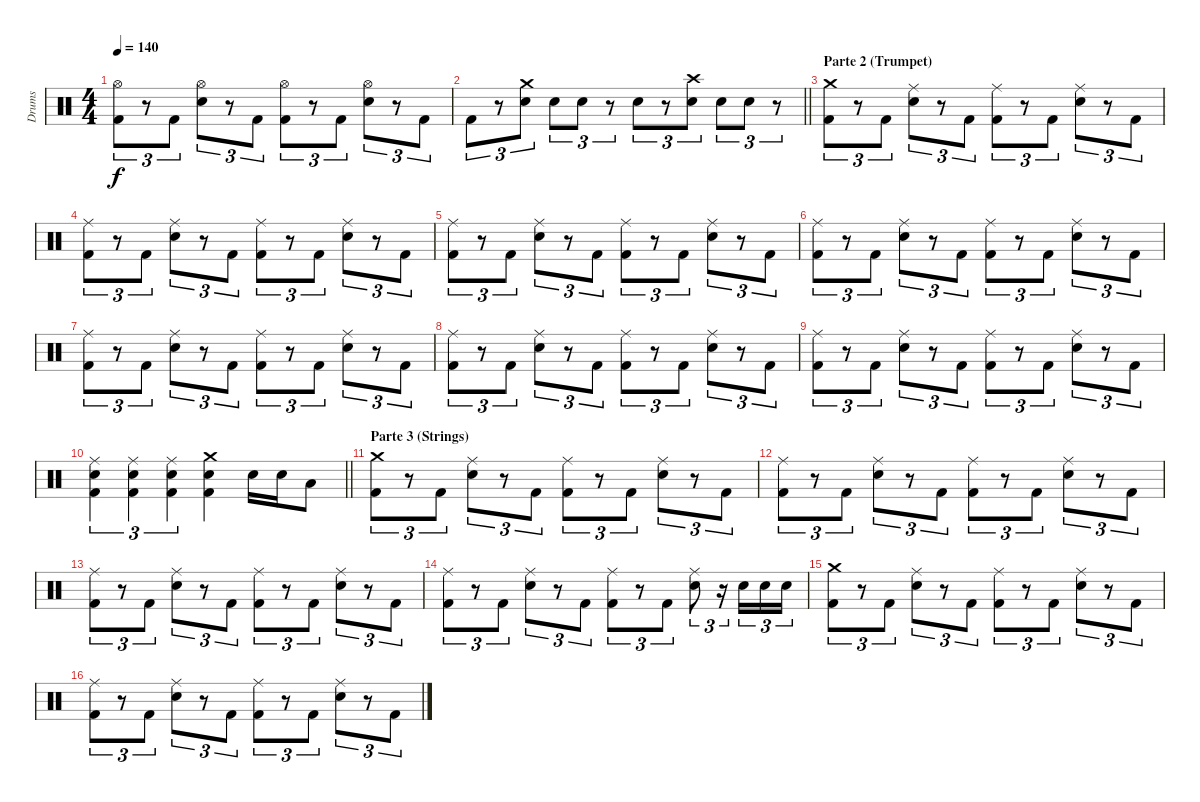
\track ("Drums" "Drums") {instrument percussion}
\staff {score}
\articulation defaults
\ts (4 4)
\tempo 140
\clef neutral
\ks c
("Hi-Hat (open)" "Kick (hit) 2").8{tu (3 2) dy f} r.8{tu (3 2)} "Kick (hit) 2".8{tu (3 2)} ("Hi-Hat (open)" "Snare (hit) 2").8{tu (3 2)} r.8{tu (3 2)} "Kick (hit) 2".8{tu (3 2)} ("Hi-Hat (open)" "Kick (hit) 2").8{tu (3 2)} r.8{tu (3 2)} "Kick (hit) 2".8{tu (3 2)} ("Hi-Hat (open)" "Snare (hit) 2").8{tu (3 2)} r.8{tu (3 2)} "Kick (hit) 2".8{tu (3 2)} |
\barLineRight lightlight "Kick (hit) 2".8{tu (3 2)}
r.8{tu (3 2)} ("Crash medium (hit)" "Snare (hit) 2").8{tu (3 2)} "Snare (hit) 2".8{tu (3 2)} "Snare (hit) 2".8{tu (3 2)} r.8{tu (3 2)} "Snare (hit) 2".8{tu (3 2)} r.8{tu (3 2)} ("Crash high (hit)" "Snare (hit) 2").8{tu (3 2)} "Snare (hit) 2".8{tu (3 2)} "Snare (hit) 2".8{tu (3 2)} r.8{tu (3 2)} |
\section ("" "Parte 2 (Trumpet)")
("Crash medium (hit)" "Kick (hit) 2").8{tu (3 2)} r.8{tu (3 2)} "Kick (hit) 2".8{tu (3 2)} ("Ride (middle)" "Snare (hit) 2").8{tu (3 2)} r.8{tu (3 2)} "Kick (hit) 2".8{tu (3 2)} ("Ride (middle)" "Kick (hit) 2").8{tu (3 2)} r.8{tu (3 2)} "Kick (hit) 2".8{tu (3 2)} ("Ride (middle)" "Snare (hit) 2").8{tu (3 2)} r.8{tu (3 2)} "Kick (hit) 2".8{tu (3 2)} |
("Ride (middle)" "Kick (hit) 2").8{tu (3 2)} r.8{tu (3 2)} "Kick (hit) 2".8{tu (3 2)} ("Ride (middle)" "Snare (hit) 2").8{tu (3 2)} r.8{tu (3 2)} "Kick (hit) 2".8{tu (3 2)} ("Ride (middle)" "Kick (hit) 2").8{tu (3 2)} r.8{tu (3 2)} "Kick (hit) 2".8{tu (3 2)} ("Ride (middle)" "Snare (hit) 2").8{tu (3 2)} r.8{tu (3 2)} "Kick (hit) 2".8{tu (3 2)} |
("Ride (middle)" "Kick (hit) 2").8{tu (3 2)} r.8{tu (3 2)} "Kick (hit) 2".8{tu (3 2)} ("Ride (middle)" "Snare (hit) 2").8{tu (3 2)} r.8{tu (3 2)} "Kick (hit) 2".8{tu (3 2)} ("Ride (middle)" "Kick (hit) 2").8{tu (3 2)} r.8{tu (3 2)} "Kick (hit) 2".8{tu (3 2)} ("Ride (middle)" "Snare (hit) 2").8{tu (3 2)} r.8{tu (3 2)} "Kick (hit) 2".8{tu (3 2)} |
("Ride (middle)" "Kick (hit) 2").8{tu (3 2)} r.8{tu (3 2)} "Kick (hit) 2".8{tu (3 2)} ("Ride (middle)" "Snare (hit) 2").8{tu (3 2)} r.8{tu (3 2)} "Kick (hit) 2".8{tu (3 2)} ("Ride (middle)" "Kick (hit) 2").8{tu (3 2)} r.8{tu (3 2)} "Kick (hit) 2".8{tu (3 2)} ("Ride (middle)" "Snare (hit) 2").8{tu (3 2)} r.8{tu (3 2)} "Kick (hit) 2".8{tu (3 2)} |
("Ride (middle)" "Kick (hit) 2").8{tu (3 2)} r.8{tu (3 2)} "Kick (hit) 2".8{tu (3 2)} ("Ride (middle)" "Snare (hit) 2").8{tu (3 2)} r.8{tu (3 2)} "Kick (hit) 2".8{tu (3 2)} ("Ride (middle)" "Kick (hit) 2").8{tu (3 2)} r.8{tu (3 2)} "Kick (hit) 2".8{tu (3 2)} ("Ride (middle)" "Snare (hit) 2").8{tu (3 2)} r.8{tu (3 2)} "Kick (hit) 2".8{tu (3 2)} |
("Ride (middle)" "Kick (hit) 2").8{tu (3 2)} r.8{tu (3 2)} "Kick (hit) 2".8{tu (3 2)} ("Ride (middle)" "Snare (hit) 2").8{tu (3 2)} r.8{tu (3 2)} "Kick (hit) 2".8{tu (3 2)} ("Ride (middle)" "Kick (hit) 2").8{tu (3 2)} r.8{tu (3 2)} "Kick (hit) 2".8{tu (3 2)} ("Ride (middle)" "Snare (hit) 2").8{tu (3 2)} r.8{tu (3 2)} "Kick (hit) 2".8{tu (3 2)} |
("Ride (middle)" "Kick (hit) 2").8{tu (3 2)} r.8{tu (3 2)} "Kick (hit) 2".8{tu (3 2)} ("Ride (middle)" "Snare (hit) 2").8{tu (3 2)} r.8{tu (3 2)} "Kick (hit) 2".8{tu (3 2)} ("Ride (middle)" "Kick (hit) 2").8{tu (3 2)} r.8{tu (3 2)} "Kick (hit) 2".8{tu (3 2)} ("Ride (middle)" "Snare (hit) 2").8{tu (3 2)} r.8{tu (3 2)} "Kick (hit) 2".8{tu (3 2)} |
\barLineRight lightlight
("Ride (middle)" "Snare (hit) 2" "Kick (hit) 2").4{tu (3 2)} ("Ride (middle)" "Snare (hit) 2" "Kick (hit) 2").4{tu (3 2)} ("Ride (middle)" "Snare (hit) 2" "Kick (hit) 2").4{tu (3 2)} ("Crash medium (hit)" "Snare (hit) 2" "Kick (hit) 2").4 "Snare (hit) 2".16 "Snare (hit) 2".16 "Low Floor Tom (hit)".8 |
\section ("" "Parte 3 (Strings)")
("Crash medium (hit)" "Kick (hit) 2").8{tu (3 2)} r.8{tu (3 2)} "Kick (hit) 2".8{tu (3 2)} ("Ride (middle)" "Snare (hit) 2").8{tu (3 2)} r.8{tu (3 2)} "Kick (hit) 2".8{tu (3 2)} ("Ride (middle)" "Kick (hit) 2").8{tu (3 2)} r.8{tu (3 2)} "Kick (hit) 2".8{tu (3 2)} ("Ride (middle)" "Snare (hit) 2").8{tu (3 2)} r.8{tu (3 2)} "Kick (hit) 2".8{tu (3 2)} |
("Ride (middle)" "Kick (hit) 2").8{tu (3 2)} r.8{tu (3 2)} "Kick (hit) 2".8{tu (3 2)} ("Ride (middle)" "Snare (hit) 2").8{tu (3 2)} r.8{tu (3 2)} "Kick (hit) 2".8{tu (3 2)} ("Ride (middle)" "Kick (hit) 2").8{tu (3 2)} r.8{tu (3 2)} "Kick (hit) 2".8{tu (3 2)} ("Ride (middle)" "Snare (hit) 2").8{tu (3 2)} r.8{tu (3 2)} "Kick (hit) 2".8{tu (3 2)} |
("Ride (middle)" "Kick (hit) 2").8{tu (3 2)} r.8{tu (3 2)} "Kick (hit) 2".8{tu (3 2)} ("Ride (middle)" "Snare (hit) 2").8{tu (3 2)} r.8{tu (3 2)} "Kick (hit) 2".8{tu (3 2)} ("Ride (middle)" "Kick (hit) 2").8{tu (3 2)} r.8{tu (3 2)} "Kick (hit) 2".8{tu (3 2)} ("Ride (middle)" "Snare (hit) 2").8{tu (3 2)} r.8{tu (3 2)} "Kick (hit) 2".8{tu (3 2)} |
("Ride (middle)" "Kick (hit) 2").8{tu (3 2)} r.8{tu (3 2)} "Kick (hit) 2".8{tu (3 2)} ("Ride (middle)" "Snare (hit) 2").8{tu (3 2)} r.8{tu (3 2)} "Kick (hit) 2".8{tu (3 2)} ("Ride (middle)" "Kick (hit) 2").8{tu (3 2)} r.8{tu (3 2)} "Kick (hit) 2".8{tu (3 2)} ("Ride (middle)" "Snare (hit) 2").8{tu (3 2)} r.16{tu (3 2)} "Snare (hit) 2".16{tu (3 2)} "Snare (hit) 2".16{tu (3 2)} "Snare (hit) 2".16{tu (3 2)} |
("Crash medium (hit)" "Kick (hit) 2").8{tu (3 2)} r.8{tu (3 2)} "Kick (hit) 2".8{tu (3 2)} ("Ride (middle)" "Snare (hit) 2").8{tu (3 2)} r.8{tu (3 2)} "Kick (hit) 2".8{tu (3 2)} ("Ride (middle)" "Kick (hit) 2").8{tu (3 2)} r.8{tu (3 2)} "Kick (hit) 2".8{tu (3 2)} ("Ride (middle)" "Snare (hit) 2").8{tu (3 2)} r.8{tu (3 2)} "Kick (hit) 2".8{tu (3 2)} |
("Ride (middle)" "Kick (hit) 2").8{tu (3 2)} r.8{tu (3 2)} "Kick (hit) 2".8{tu (3 2)} ("Ride (middle)" "Snare (hit) 2").8{tu (3 2)} r.8{tu (3 2)} "Kick (hit) 2".8{tu (3 2)} ("Ride (middle)" "Kick (hit) 2").8{tu (3 2)} r.8{tu (3 2)} "Kick (hit) 2".8{tu (3 2)} ("Ride (middle)" "Snare (hit) 2").8{tu (3 2)} r.8{tu (3 2)} "Kick (hit) 2".8{tu (3 2)}
